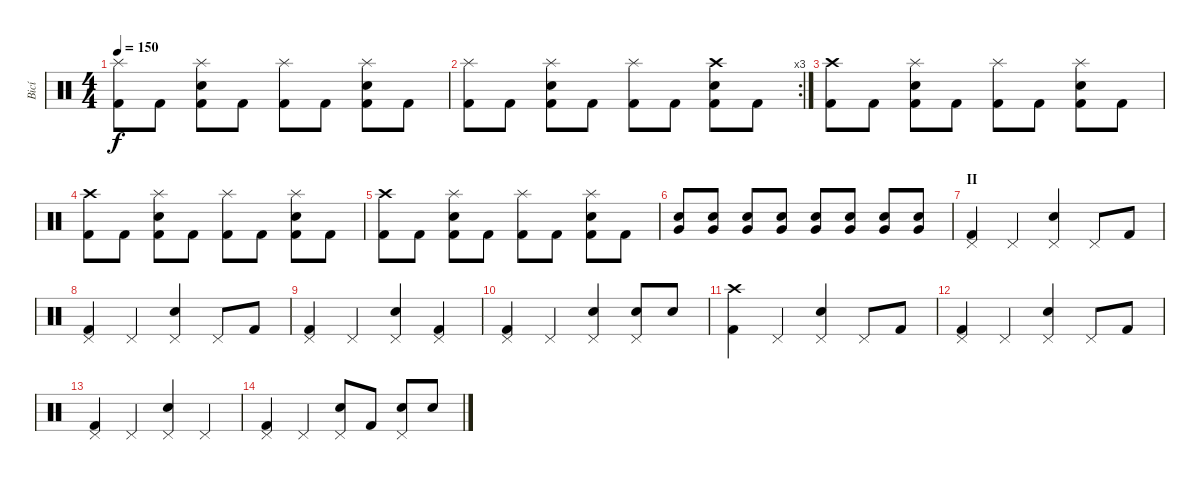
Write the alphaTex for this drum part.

\track ("Bicí" "Bicí") {instrument percussion}
\staff {score}
\articulation defaults
\ts (4 4)
\tempo 150
\clef neutral
\ks c
("Splash (hit)" "Kick (hit) 2").8{dy f} "Kick (hit) 2".8 ("Splash (hit)" "Electric Snare (hit)" "Kick (hit) 2").8 "Kick (hit) 2".8 ("Splash (hit)" "Kick (hit) 2").8 "Kick (hit) 2".8 ("Splash (hit)" "Electric Snare (hit)" "Kick (hit) 2").8 "Kick (hit) 2".8 |
\rc 3
("Splash (hit)" "Kick (hit) 2").8 "Kick (hit) 2".8 ("Splash (hit)" "Electric Snare (hit)" "Kick (hit) 2").8 "Kick (hit) 2".8 ("Splash (hit)" "Kick (hit) 2").8 "Kick (hit) 2".8 ("Crash high (hit)" "Electric Snare (hit)" "Kick (hit) 2").8 "Kick (hit) 2".8 |
("Crash high (hit)" "Kick (hit) 2").8 "Kick (hit) 2".8 ("Splash (hit)" "Electric Snare (hit)" "Kick (hit) 2").8 "Kick (hit) 2".8 ("Splash (hit)" "Kick (hit) 2").8 "Kick (hit) 2".8 ("Splash (hit)" "Electric Snare (hit)" "Kick (hit) 2").8 "Kick (hit) 2".8 |
("Crash high (hit)" "Kick (hit) 2").8 "Kick (hit) 2".8 ("Splash (hit)" "Electric Snare (hit)" "Kick (hit) 2").8 "Kick (hit) 2".8 ("Splash (hit)" "Kick (hit) 2").8 "Kick (hit) 2".8 ("Splash (hit)" "Electric Snare (hit)" "Kick (hit) 2").8 "Kick (hit) 2".8 |
("Crash high (hit)" "Kick (hit) 2").8 "Kick (hit) 2".8 ("Splash (hit)" "Electric Snare (hit)" "Kick (hit) 2").8 "Kick (hit) 2".8 ("Splash (hit)" "Kick (hit) 2").8 "Kick (hit) 2".8 ("Splash (hit)" "Electric Snare (hit)" "Kick (hit) 2").8 "Kick (hit) 2".8 |
("Very Low Tom (hit)" "Electric Snare (hit)").8 ("Very Low Tom (hit)" "Electric Snare (hit)").8 ("Very Low Tom (hit)" "Electric Snare (hit)").8 ("Very Low Tom (hit)" "Electric Snare (hit)").8 ("Very Low Tom (hit)" "Electric Snare (hit)").8 ("Very Low Tom (hit)" "Electric Snare (hit)").8 ("Very Low Tom (hit)" "Electric Snare (hit)").8 ("Very Low Tom (hit)" "Electric Snare (hit)").8 |
\section ("" "II")
("Pedal Hi-Hat (hit)" "Kick (hit) 2").4 "Pedal Hi-Hat (hit)".4 ("Pedal Hi-Hat (hit)" "Electric Snare (hit)").4 "Pedal Hi-Hat (hit)".8 "Kick (hit) 2".8 |
("Pedal Hi-Hat (hit)" "Kick (hit) 2").4 "Pedal Hi-Hat (hit)".4 ("Pedal Hi-Hat (hit)" "Electric Snare (hit)").4 "Pedal Hi-Hat (hit)".8 "Kick (hit) 2".8 |
("Pedal Hi-Hat (hit)" "Kick (hit) 2").4 "Pedal Hi-Hat (hit)".4 ("Pedal Hi-Hat (hit)" "Electric Snare (hit)").4 ("Pedal Hi-Hat (hit)" "Kick (hit) 2").4 |
("Pedal Hi-Hat (hit)" "Kick (hit) 2").4 "Pedal Hi-Hat (hit)".4 ("Pedal Hi-Hat (hit)" "Electric Snare (hit)").4 ("Pedal Hi-Hat (hit)" "Electric Snare (hit)").8 "Electric Snare (hit)".8 |
("Crash high (hit)" "Kick (hit) 2").4 "Pedal Hi-Hat (hit)".4 ("Pedal Hi-Hat (hit)" "Electric Snare (hit)").4 "Pedal Hi-Hat (hit)".8 "Kick (hit) 2".8 |
("Pedal Hi-Hat (hit)" "Kick (hit) 2").4 "Pedal Hi-Hat (hit)".4 ("Pedal Hi-Hat (hit)" "Electric Snare (hit)").4 "Pedal Hi-Hat (hit)".8 "Kick (hit) 2".8 |
("Pedal Hi-Hat (hit)" "Kick (hit) 2").4 "Pedal Hi-Hat (hit)".4 ("Pedal Hi-Hat (hit)" "Electric Snare (hit)").4 "Pedal Hi-Hat (hit)".4 |
("Pedal Hi-Hat (hit)" "Kick (hit) 2").4 "Pedal Hi-Hat (hit)".4 ("Pedal Hi-Hat (hit)" "Electric Snare (hit)").8 "Kick (hit) 2".8 ("Pedal Hi-Hat (hit)" "Electric Snare (hit)").8 "Electric Snare (hit)".8
